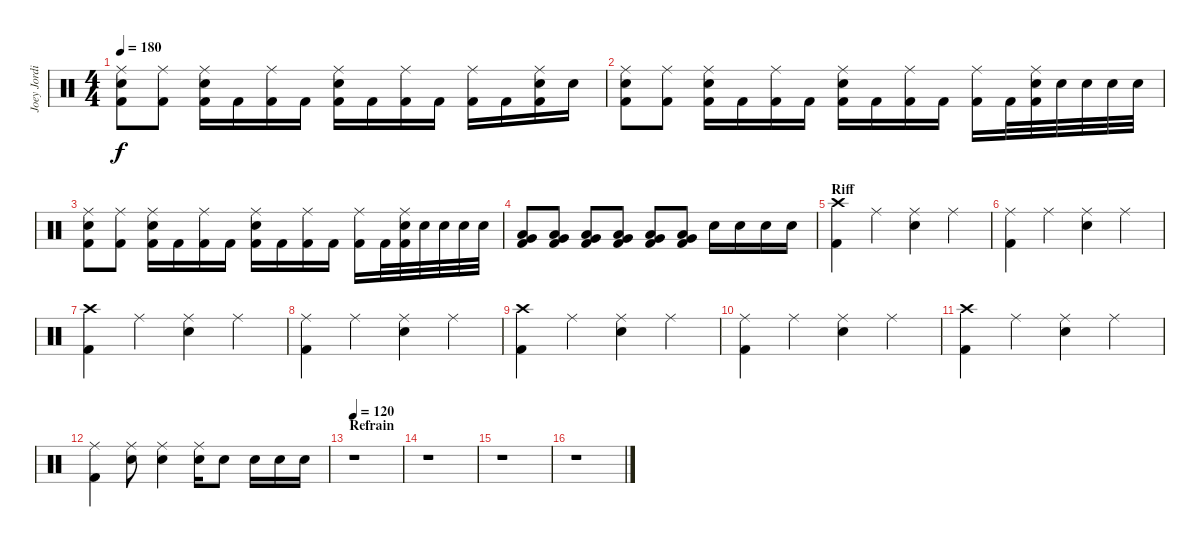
\track ("Joey Jordison" "Joey Jordi") {instrument percussion}
\staff {score}
\articulation defaults
\ts (4 4)
\tempo 180
\clef neutral
\ks c
("Ride (middle)" "Kick (hit) 2" "Electric Snare (hit)").8{dy f} ("Ride (middle)" "Kick (hit) 2").8 ("Ride (middle)" "Electric Snare (hit)" "Kick (hit) 2").16 "Kick (hit) 2".16 ("Ride (middle)" "Kick (hit) 2").16 "Kick (hit) 2".16 ("Ride (middle)" "Kick (hit) 2" "Electric Snare (hit)").16 "Kick (hit) 2".16 ("Ride (middle)" "Kick (hit) 2").16 "Kick (hit) 2".16 ("Ride (middle)" "Kick (hit) 2").16 "Kick (hit) 2".16 ("Ride (middle)" "Kick (hit) 2" "Electric Snare (hit)").16 "Electric Snare (hit)".16 |
("Ride (middle)" "Kick (hit) 2" "Electric Snare (hit)").8 ("Ride (middle)" "Kick (hit) 2").8 ("Ride (middle)" "Electric Snare (hit)" "Kick (hit) 2").16 "Kick (hit) 2".16 ("Ride (middle)" "Kick (hit) 2").16 "Kick (hit) 2".16 ("Ride (middle)" "Kick (hit) 2" "Electric Snare (hit)").16 "Kick (hit) 2".16 ("Ride (middle)" "Kick (hit) 2").16 "Kick (hit) 2".16 ("Ride (middle)" "Kick (hit) 2").16 "Kick (hit) 2".32 ("Ride (middle)" "Kick (hit) 2" "Electric Snare (hit)").32 "Electric Snare (hit)".32 "Electric Snare (hit)".32 "Electric Snare (hit)".32 "Electric Snare (hit)".32 |
("Ride (middle)" "Kick (hit) 2" "Electric Snare (hit)").8 ("Ride (middle)" "Kick (hit) 2").8 ("Ride (middle)" "Electric Snare (hit)" "Kick (hit) 2").16 "Kick (hit) 2".16 ("Ride (middle)" "Kick (hit) 2").16 "Kick (hit) 2".16 ("Ride (middle)" "Kick (hit) 2" "Electric Snare (hit)").16 "Kick (hit) 2".16 ("Ride (middle)" "Kick (hit) 2").16 "Kick (hit) 2".16 ("Ride (middle)" "Kick (hit) 2").16 "Kick (hit) 2".32 ("Ride (middle)" "Kick (hit) 2" "Electric Snare (hit)").32 "Electric Snare (hit)".32 "Electric Snare (hit)".32 "Electric Snare (hit)".32 "Electric Snare (hit)".32 |
("Very Low Tom (hit)" "Low Tom (hit)" "Kick (hit) 2").8 ("Very Low Tom (hit)" "Low Tom (hit)" "Kick (hit) 2").8 ("Very Low Tom (hit)" "Low Tom (hit)" "Kick (hit) 2").8 ("Very Low Tom (hit)" "Low Tom (hit)" "Kick (hit) 2").8 ("Very Low Tom (hit)" "Low Tom (hit)" "Kick (hit) 2").8 ("Very Low Tom (hit)" "Low Tom (hit)" "Kick (hit) 2").8 "Electric Snare (hit)".16 "Electric Snare (hit)".16 "Electric Snare (hit)".16 "Electric Snare (hit)".16 |
\section ("" "Riff")
("Crash high (hit)" "Kick (hit) 2").4 "Ride (middle)".4 ("Ride (middle)" "Electric Snare (hit)").4 "Ride (middle)".4 |
("Ride (middle)" "Kick (hit) 2").4 "Ride (middle)".4 ("Ride (middle)" "Electric Snare (hit)").4 "Ride (middle)".4 |
("Crash high (hit)" "Kick (hit) 2").4 "Ride (middle)".4 ("Ride (middle)" "Electric Snare (hit)").4 "Ride (middle)".4 |
("Ride (middle)" "Kick (hit) 2").4 "Ride (middle)".4 ("Ride (middle)" "Electric Snare (hit)").4 "Ride (middle)".4 |
("Crash high (hit)" "Kick (hit) 2").4 "Ride (middle)".4 ("Ride (middle)" "Electric Snare (hit)").4 "Ride (middle)".4 |
("Ride (middle)" "Kick (hit) 2").4 "Ride (middle)".4 ("Ride (middle)" "Electric Snare (hit)").4 "Ride (middle)".4 |
("Crash high (hit)" "Kick (hit) 2").4 "Ride (middle)".4 ("Ride (middle)" "Electric Snare (hit)").4 "Ride (middle)".4 |
("Ride (middle)" "Kick (hit) 2").4 ("Ride (middle)" "Electric Snare (hit)").8 ("Ride (middle)" "Electric Snare (hit)").4 ("Ride (middle)" "Electric Snare (hit)").16 "Electric Snare (hit)".8 "Electric Snare (hit)".16 "Electric Snare (hit)".16 "Electric Snare (hit)".16 |
\section ("" "Refrain")
\tempo 120
r.1 |
r.1 |
r.1 |
r.1
